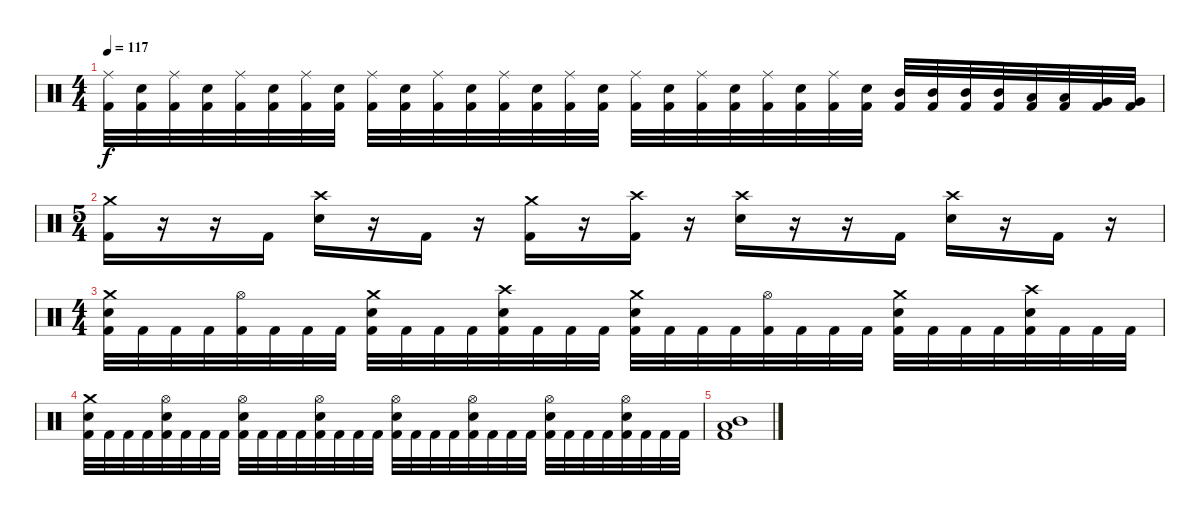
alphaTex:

\track "" {instrument percussion}
\staff {score}
\articulation defaults
\ts (4 4)
\tempo 117
\clef neutral
\ks c
("Ride (middle)" "Kick (hit) 2").32{dy f} ("Electric Snare (hit)" "Kick (hit) 2").32 ("Ride (middle)" "Kick (hit) 2").32 ("Electric Snare (hit)" "Kick (hit) 2").32 ("Ride (middle)" "Kick (hit) 2").32 ("Electric Snare (hit)" "Kick (hit) 2").32 ("Ride (middle)" "Kick (hit) 2").32 ("Electric Snare (hit)" "Kick (hit) 2").32 ("Ride (middle)" "Kick (hit) 2").32 ("Electric Snare (hit)" "Kick (hit) 2").32 ("Ride (middle)" "Kick (hit) 2").32 ("Electric Snare (hit)" "Kick (hit) 2").32 ("Ride (middle)" "Kick (hit) 2").32 ("Electric Snare (hit)" "Kick (hit) 2").32 ("Ride (middle)" "Kick (hit) 2").32 ("Electric Snare (hit)" "Kick (hit) 2").32 ("Ride (middle)" "Kick (hit) 2").32 ("Electric Snare (hit)" "Kick (hit) 2").32 ("Ride (middle)" "Kick (hit) 2").32 ("Electric Snare (hit)" "Kick (hit) 2").32 ("Ride (middle)" "Kick (hit) 2").32 ("Electric Snare (hit)" "Kick (hit) 2").32 ("Ride (middle)" "Kick (hit) 2").32 ("Electric Snare (hit)" "Kick (hit) 2").32 ("Mid Tom (hit)" "Kick (hit) 2").32 ("Mid Tom (hit)" "Kick (hit) 2").32 ("Mid Tom (hit)" "Kick (hit) 2").32 ("Mid Tom (hit)" "Kick (hit) 2").32 ("Low Tom (hit)" "Kick (hit) 2").32 ("Low Tom (hit)" "Kick (hit) 2").32 ("Very Low Tom (hit)" "Kick (hit) 2").32 ("Very Low Tom (hit)" "Kick (hit) 2").32 |
\ts (5 4)
("Kick (hit) 2" "Crash medium (hit)").16 r.16 r.16 "Kick (hit) 2".16 ("Electric Snare (hit)" "Crash high (hit)").16 r.16 "Kick (hit) 2".16 r.16 ("Kick (hit) 2" "Crash medium (hit)").16 r.16 ("Kick (hit) 2" "Crash high (hit)").16 r.16 ("Electric Snare (hit)" "Crash high (hit)").16 r.16 r.16 "Kick (hit) 2".16 ("Electric Snare (hit)" "Crash high (hit)").16 r.16 "Kick (hit) 2".16 r.16 |
\ts (4 4)
("Kick (hit) 2" "Electric Snare (hit)" "Crash medium (hit)").32 "Kick (hit) 2".32 "Kick (hit) 2".32 "Kick (hit) 2".32 ("Kick (hit) 2" "Hi-Hat (open)").32 "Kick (hit) 2".32 "Kick (hit) 2".32 "Kick (hit) 2".32 ("Kick (hit) 2" "Electric Snare (hit)" "Crash medium (hit)").32 "Kick (hit) 2".32 "Kick (hit) 2".32 "Kick (hit) 2".32 ("Kick (hit) 2" "Electric Snare (hit)" "Crash high (hit)").32 "Kick (hit) 2".32 "Kick (hit) 2".32 "Kick (hit) 2".32 ("Kick (hit) 2" "Electric Snare (hit)" "Crash medium (hit)").32 "Kick (hit) 2".32 "Kick (hit) 2".32 "Kick (hit) 2".32 ("Kick (hit) 2" "Hi-Hat (open)").32 "Kick (hit) 2".32 "Kick (hit) 2".32 "Kick (hit) 2".32 ("Kick (hit) 2" "Electric Snare (hit)" "Crash medium (hit)").32 "Kick (hit) 2".32 "Kick (hit) 2".32 "Kick (hit) 2".32 ("Kick (hit) 2" "Electric Snare (hit)" "Crash high (hit)").32 "Kick (hit) 2".32 "Kick (hit) 2".32 "Kick (hit) 2".32 |
("Kick (hit) 2" "Electric Snare (hit)" "Crash medium (hit)").32 "Kick (hit) 2".32 "Kick (hit) 2".32 "Kick (hit) 2".32 ("Kick (hit) 2" "Electric Snare (hit)" "Hi-Hat (open)").32 "Kick (hit) 2".32 "Kick (hit) 2".32 "Kick (hit) 2".32 ("Kick (hit) 2" "Electric Snare (hit)" "Hi-Hat (open)").32 "Kick (hit) 2".32 "Kick (hit) 2".32 "Kick (hit) 2".32 ("Kick (hit) 2" "Electric Snare (hit)" "Hi-Hat (open)").32 "Kick (hit) 2".32 "Kick (hit) 2".32 "Kick (hit) 2".32 ("Kick (hit) 2" "Electric Snare (hit)" "Hi-Hat (open)").32 "Kick (hit) 2".32 "Kick (hit) 2".32 "Kick (hit) 2".32 ("Kick (hit) 2" "Electric Snare (hit)" "Hi-Hat (open)").32 "Kick (hit) 2".32 "Kick (hit) 2".32 "Kick (hit) 2".32 ("Kick (hit) 2" "Electric Snare (hit)" "Hi-Hat (open)").32 "Kick (hit) 2".32 "Kick (hit) 2".32 "Kick (hit) 2".32 ("Kick (hit) 2" "Electric Snare (hit)" "Hi-Hat (open)").32 "Kick (hit) 2".32 "Kick (hit) 2".32 "Kick (hit) 2".32 |
("Kick (hit) 2" "Mid Tom (hit)" "Low Tom (hit)").1
